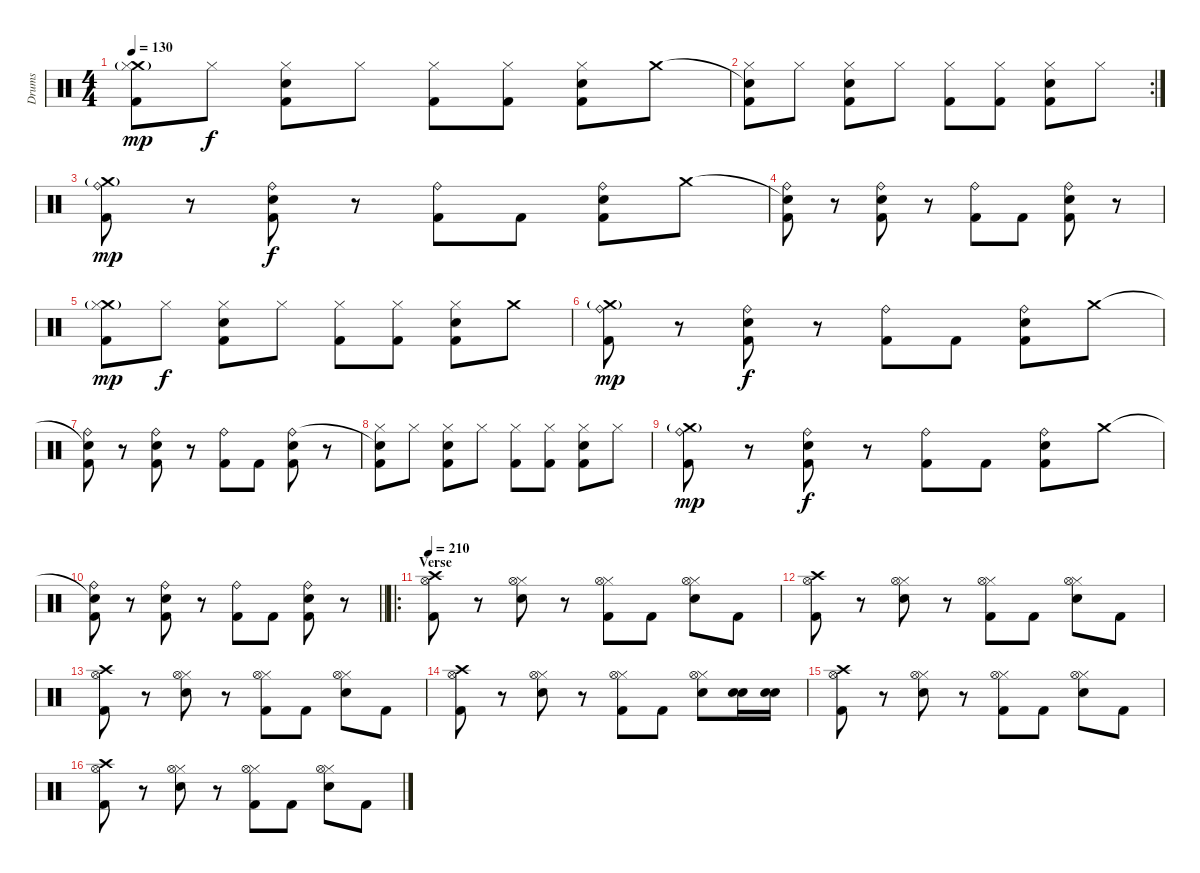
\track ("Drums" "Drums") {instrument percussion}
\staff {score}
\articulation defaults
\ts (4 4)
\tempo 130
\clef neutral
\ks c
("Crash medium (hit)"{g} "Hi-Hat (closed)" "Kick (hit) 2").8{dy mp} "Hi-Hat (closed)".8{dy f} ("Hi-Hat (closed)" "Snare (hit) 2" "Kick (hit) 2").8 "Hi-Hat (closed)".8 ("Hi-Hat (closed)" "Kick (hit) 2").8 ("Hi-Hat (closed)" "Kick (hit) 2").8 ("Hi-Hat (closed)" "Snare (hit) 2" "Kick (hit) 2").8 "Crash medium (hit)".8 |
\rc 2
("Snare (hit)"{t} "Hi-Hat (closed)" "Kick (hit) 2").8 "Hi-Hat (closed)".8 ("Hi-Hat (closed)" "Snare (hit) 2" "Kick (hit) 2").8 "Hi-Hat (closed)".8 ("Hi-Hat (closed)" "Kick (hit) 2").8 ("Hi-Hat (closed)" "Kick (hit) 2").8 ("Hi-Hat (closed)" "Snare (hit) 2" "Kick (hit) 2").8 "Hi-Hat (closed)".8 |
("Crash medium (hit)"{g} "Ride (bell)" "Kick (hit) 2").8{dy mp} r.8 ("Ride (bell)" "Snare (hit) 2" "Kick (hit) 2").8{dy f} r.8 ("Ride (bell)" "Kick (hit) 2").8 "Kick (hit) 2".8 ("Ride (bell)" "Snare (hit) 2" "Kick (hit) 2").8 "Crash medium (hit)".8 |
("Snare (hit)"{t} "Ride (bell)" "Kick (hit) 2").8 r.8 ("Ride (bell)" "Snare (hit) 2" "Kick (hit) 2").8 r.8 ("Ride (bell)" "Kick (hit) 2").8 "Kick (hit) 2".8 ("Ride (bell)" "Snare (hit) 2" "Kick (hit) 2").8 r.8 |
("Crash medium (hit)"{g} "Hi-Hat (closed)" "Kick (hit) 2").8{dy mp} "Hi-Hat (closed)".8{dy f} ("Hi-Hat (closed)" "Snare (hit) 2" "Kick (hit) 2").8 "Hi-Hat (closed)".8 ("Hi-Hat (closed)" "Kick (hit) 2").8 ("Hi-Hat (closed)" "Kick (hit) 2").8 ("Hi-Hat (closed)" "Snare (hit) 2" "Kick (hit) 2").8 "Crash medium (hit)".8 |
("Crash medium (hit)"{g} "Ride (bell)" "Kick (hit) 2").8{dy mp} r.8 ("Ride (bell)" "Snare (hit) 2" "Kick (hit) 2").8{dy f} r.8 ("Ride (bell)" "Kick (hit) 2").8 "Kick (hit) 2".8 ("Ride (bell)" "Snare (hit) 2" "Kick (hit) 2").8 "Crash medium (hit)".8 |
("Snare (hit)"{t} "Ride (bell)" "Kick (hit) 2").8 r.8 ("Ride (bell)" "Snare (hit) 2" "Kick (hit) 2").8 r.8 ("Ride (bell)" "Kick (hit) 2").8 "Kick (hit) 2".8 ("Ride (bell)" "Snare (hit) 2" "Kick (hit) 2").8 r.8 |
("Snare (hit)"{t} "Hi-Hat (closed)" "Kick (hit) 2").8 "Hi-Hat (closed)".8 ("Hi-Hat (closed)" "Snare (hit) 2" "Kick (hit) 2").8 "Hi-Hat (closed)".8 ("Hi-Hat (closed)" "Kick (hit) 2").8 ("Hi-Hat (closed)" "Kick (hit) 2").8 ("Hi-Hat (closed)" "Snare (hit) 2" "Kick (hit) 2").8 "Hi-Hat (closed)".8 |
("Crash medium (hit)"{g} "Ride (bell)" "Kick (hit) 2").8{dy mp} r.8 ("Ride (bell)" "Snare (hit) 2" "Kick (hit) 2").8{dy f} r.8 ("Ride (bell)" "Kick (hit) 2").8 "Kick (hit) 2".8 ("Ride (bell)" "Snare (hit) 2" "Kick (hit) 2").8 "Crash medium (hit)".8 |
\barLineRight lightlight
("Snare (hit)"{t} "Ride (bell)" "Kick (hit) 2").8 r.8 ("Ride (bell)" "Snare (hit) 2" "Kick (hit) 2").8 r.8 ("Ride (bell)" "Kick (hit) 2").8 "Kick (hit) 2".8 ("Ride (bell)" "Snare (hit) 2" "Kick (hit) 2").8 r.8 |
\ro
\section ("" "Verse")
\tempo 210
("Crash high (hit)" "Hi-Hat (open)" "Kick (hit) 2").8 r.8 ("Hi-Hat (closed)" "Hi-Hat (open)" "Electric Snare (hit)").8 r.8 ("Hi-Hat (closed)" "Hi-Hat (open)" "Kick (hit) 2").8 "Kick (hit) 2".8 ("Hi-Hat (closed)" "Hi-Hat (open)" "Electric Snare (hit)").8 "Kick (hit) 2".8 |
("Crash high (hit)" "Hi-Hat (open)" "Kick (hit) 2").8 r.8 ("Hi-Hat (closed)" "Hi-Hat (open)" "Electric Snare (hit)").8 r.8 ("Hi-Hat (closed)" "Hi-Hat (open)" "Kick (hit) 2").8 "Kick (hit) 2".8 ("Hi-Hat (closed)" "Hi-Hat (open)" "Electric Snare (hit)").8 "Kick (hit) 2".8 |
("Crash high (hit)" "Hi-Hat (open)" "Kick (hit) 2").8 r.8 ("Hi-Hat (closed)" "Hi-Hat (open)" "Electric Snare (hit)").8 r.8 ("Hi-Hat (closed)" "Hi-Hat (open)" "Kick (hit) 2").8 "Kick (hit) 2".8 ("Hi-Hat (closed)" "Hi-Hat (open)" "Electric Snare (hit)").8 "Kick (hit) 2".8 |
("Crash high (hit)" "Hi-Hat (open)" "Kick (hit) 2").8 r.8 ("Hi-Hat (closed)" "Hi-Hat (open)" "Electric Snare (hit)").8 r.8 ("Hi-Hat (closed)" "Hi-Hat (open)" "Kick (hit) 2").8 "Kick (hit) 2".8 ("Hi-Hat (closed)" "Hi-Hat (open)" "Electric Snare (hit)").8 ("Snare (hit) 2" "Electric Snare (hit)").16 ("Snare (hit) 2" "Electric Snare (hit)").16 |
("Crash high (hit)" "Hi-Hat (open)" "Kick (hit) 2").8 r.8 ("Hi-Hat (closed)" "Hi-Hat (open)" "Electric Snare (hit)").8 r.8 ("Hi-Hat (closed)" "Hi-Hat (open)" "Kick (hit) 2").8 "Kick (hit) 2".8 ("Hi-Hat (closed)" "Hi-Hat (open)" "Electric Snare (hit)").8 "Kick (hit) 2".8 |
("Crash high (hit)" "Hi-Hat (open)" "Kick (hit) 2").8 r.8 ("Hi-Hat (closed)" "Hi-Hat (open)" "Electric Snare (hit)").8 r.8 ("Hi-Hat (closed)" "Hi-Hat (open)" "Kick (hit) 2").8 "Kick (hit) 2".8 ("Hi-Hat (closed)" "Hi-Hat (open)" "Electric Snare (hit)").8 "Kick (hit) 2".8
